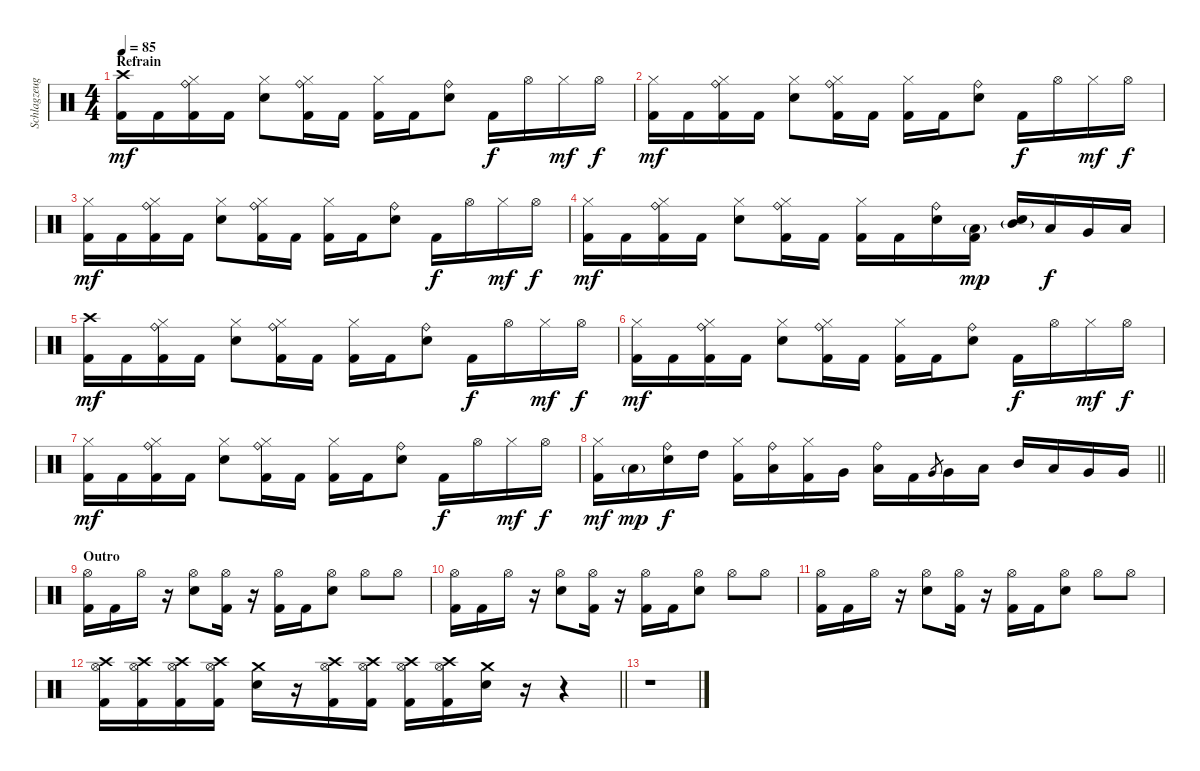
\track ("Schlagzeug" "Schlagzeug") {instrument percussion}
\staff {score}
\articulation defaults
\ts (4 4)
\section ("" "Refrain")
\tempo 85
\clef neutral
\ks c
("Crash high (hit)" "Kick (hit) 2").16{dy mf} "Kick (hit) 2".16 ("Ride (bell)" "Hi-Hat (closed)" "Kick (hit) 2").16 "Kick (hit) 2".16 ("Hi-Hat (closed)" "Snare (hit) 2").8 ("Ride (bell)" "Hi-Hat (closed)" "Kick (hit) 2").16 "Kick (hit) 2".16 ("Hi-Hat (closed)" "Kick (hit) 2").16 "Kick (hit) 2".16 ("Ride (bell)" "Snare (hit) 2").8 "Kick (hit) 2".16{dy f} "Hi-Hat (open)".16 "Hi-Hat (closed)".16{dy mf} "Hi-Hat (open)".16{dy f} |
("Hi-Hat (closed)" "Kick (hit) 2").16{dy mf} "Kick (hit) 2".16 ("Ride (bell)" "Hi-Hat (closed)" "Kick (hit) 2").16 "Kick (hit) 2".16 ("Hi-Hat (closed)" "Snare (hit) 2").8 ("Ride (bell)" "Hi-Hat (closed)" "Kick (hit) 2").16 "Kick (hit) 2".16 ("Hi-Hat (closed)" "Kick (hit) 2").16 "Kick (hit) 2".16 ("Ride (bell)" "Snare (hit) 2").8 "Kick (hit) 2".16{dy f} "Hi-Hat (open)".16 "Hi-Hat (closed)".16{dy mf} "Hi-Hat (open)".16{dy f} |
("Hi-Hat (closed)" "Kick (hit) 2").16{dy mf} "Kick (hit) 2".16 ("Ride (bell)" "Hi-Hat (closed)" "Kick (hit) 2").16 "Kick (hit) 2".16 ("Hi-Hat (closed)" "Snare (hit) 2").8 ("Ride (bell)" "Hi-Hat (closed)" "Kick (hit) 2").16 "Kick (hit) 2".16 ("Hi-Hat (closed)" "Kick (hit) 2").16 "Kick (hit) 2".16 ("Ride (bell)" "Snare (hit) 2").8 "Kick (hit) 2".16{dy f} "Hi-Hat (open)".16 "Hi-Hat (closed)".16{dy mf} "Hi-Hat (open)".16{dy f} |
("Hi-Hat (closed)" "Kick (hit) 2").16{dy mf} "Kick (hit) 2".16 ("Ride (bell)" "Hi-Hat (closed)" "Kick (hit) 2").16 "Kick (hit) 2".16 ("Hi-Hat (closed)" "Snare (hit) 2").8 ("Ride (bell)" "Hi-Hat (closed)" "Kick (hit) 2").16 "Kick (hit) 2".16 ("Hi-Hat (closed)" "Kick (hit) 2").16 "Kick (hit) 2".16 ("Ride (bell)" "Snare (hit) 2").16 ("Low Tom (hit)"{g} "Kick (hit) 2").16{dy mp} ("Snare (hit) 2" "Mid Tom (hit)"{g}).16 "Low Tom (hit)".16{dy f} "Very Low Tom (hit)".16 "Low Floor Tom (hit)".16 |
("Crash high (hit)" "Kick (hit) 2").16{dy mf} "Kick (hit) 2".16 ("Ride (bell)" "Hi-Hat (closed)" "Kick (hit) 2").16 "Kick (hit) 2".16 ("Hi-Hat (closed)" "Snare (hit) 2").8 ("Ride (bell)" "Hi-Hat (closed)" "Kick (hit) 2").16 "Kick (hit) 2".16 ("Hi-Hat (closed)" "Kick (hit) 2").16 "Kick (hit) 2".16 ("Ride (bell)" "Snare (hit) 2").8 "Kick (hit) 2".16{dy f} "Hi-Hat (open)".16 "Hi-Hat (closed)".16{dy mf} "Hi-Hat (open)".16{dy f} |
("Hi-Hat (closed)" "Kick (hit) 2").16{dy mf} "Kick (hit) 2".16 ("Ride (bell)" "Hi-Hat (closed)" "Kick (hit) 2").16 "Kick (hit) 2".16 ("Hi-Hat (closed)" "Snare (hit) 2").8 ("Ride (bell)" "Hi-Hat (closed)" "Kick (hit) 2").16 "Kick (hit) 2".16 ("Hi-Hat (closed)" "Kick (hit) 2").16 "Kick (hit) 2".16 ("Ride (bell)" "Snare (hit) 2").8 "Kick (hit) 2".16{dy f} "Hi-Hat (open)".16 "Hi-Hat (closed)".16{dy mf} "Hi-Hat (open)".16{dy f} |
("Hi-Hat (closed)" "Kick (hit) 2").16{dy mf} "Kick (hit) 2".16 ("Ride (bell)" "Hi-Hat (closed)" "Kick (hit) 2").16 "Kick (hit) 2".16 ("Hi-Hat (closed)" "Snare (hit) 2").8 ("Ride (bell)" "Hi-Hat (closed)" "Kick (hit) 2").16 "Kick (hit) 2".16 ("Hi-Hat (closed)" "Kick (hit) 2").16 "Kick (hit) 2".16 ("Ride (bell)" "Snare (hit) 2").8 "Kick (hit) 2".16{dy f} "Hi-Hat (open)".16 "Hi-Hat (closed)".16{dy mf} "Hi-Hat (open)".16{dy f} |
\barLineRight lightlight
("Hi-Hat (closed)" "Kick (hit) 2").16{dy mf} "Low Floor Tom (hit)"{g}.16{dy mp} ("Ride (bell)" "Snare (hit) 2").16{dy f} "High Tom (hit)".16 ("Hi-Hat (closed)" "Kick (hit) 2").16 ("Ride (bell)" "Low Tom (hit)").16 ("Hi-Hat (closed)" "Kick (hit) 2").16 "Very Low Tom (hit)".16 ("Ride (bell)" "Low Tom (hit)").16 "Kick (hit) 2".16 "Very Low Tom (hit)".8{gr} "Very Low Tom (hit)".16 "Low Tom (hit)".16 "Mid Tom (hit)".16 "Low Tom (hit)".16 "Very Low Tom (hit)".16 "Very Low Tom (hit)".16 |
\section ("" "Outro")
("Hi-Hat (open)" "Kick (hit) 2").16 "Kick (hit) 2".16 "Hi-Hat (open)".16 r.16 ("Hi-Hat (open)" "Snare (hit) 2").8 ("Hi-Hat (open)" "Kick (hit) 2").16 r.16 ("Hi-Hat (open)" "Kick (hit) 2").16 "Kick (hit) 2".16 ("Hi-Hat (open)" "Snare (hit) 2").8 "Hi-Hat (open)".8 "Hi-Hat (open)".8 |
("Hi-Hat (open)" "Kick (hit) 2").16 "Kick (hit) 2".16 "Hi-Hat (open)".16 r.16 ("Hi-Hat (open)" "Snare (hit) 2").8 ("Hi-Hat (open)" "Kick (hit) 2").16 r.16 ("Hi-Hat (open)" "Kick (hit) 2").16 "Kick (hit) 2".16 ("Hi-Hat (open)" "Snare (hit) 2").8 "Hi-Hat (open)".8 "Hi-Hat (open)".8 |
("Hi-Hat (open)" "Kick (hit) 2").16 "Kick (hit) 2".16 "Hi-Hat (open)".16 r.16 ("Hi-Hat (open)" "Snare (hit) 2").8 ("Hi-Hat (open)" "Kick (hit) 2").16 r.16 ("Hi-Hat (open)" "Kick (hit) 2").16 "Kick (hit) 2".16 ("Hi-Hat (open)" "Snare (hit) 2").8 "Hi-Hat (open)".8 "Hi-Hat (open)".8 |
\barLineRight lightlight
("Crash high (hit)" "Hi-Hat (open)" "Kick (hit) 2").16 ("Crash high (hit)" "Hi-Hat (open)" "Kick (hit) 2").16 ("Crash high (hit)" "Hi-Hat (open)" "Kick (hit) 2").16 ("Crash high (hit)" "Hi-Hat (open)" "Kick (hit) 2").16 ("Crash medium (hit)" "Snare (hit) 2").16 r.16 ("Crash high (hit)" "Hi-Hat (open)" "Kick (hit) 2").16 ("Crash high (hit)" "Hi-Hat (open)" "Kick (hit) 2").16 ("Crash high (hit)" "Hi-Hat (open)" "Kick (hit) 2").16 ("Crash high (hit)" "Hi-Hat (open)" "Kick (hit) 2").16 ("Crash medium (hit)" "Snare (hit) 2").16 r.16 r.4 |
r.1
